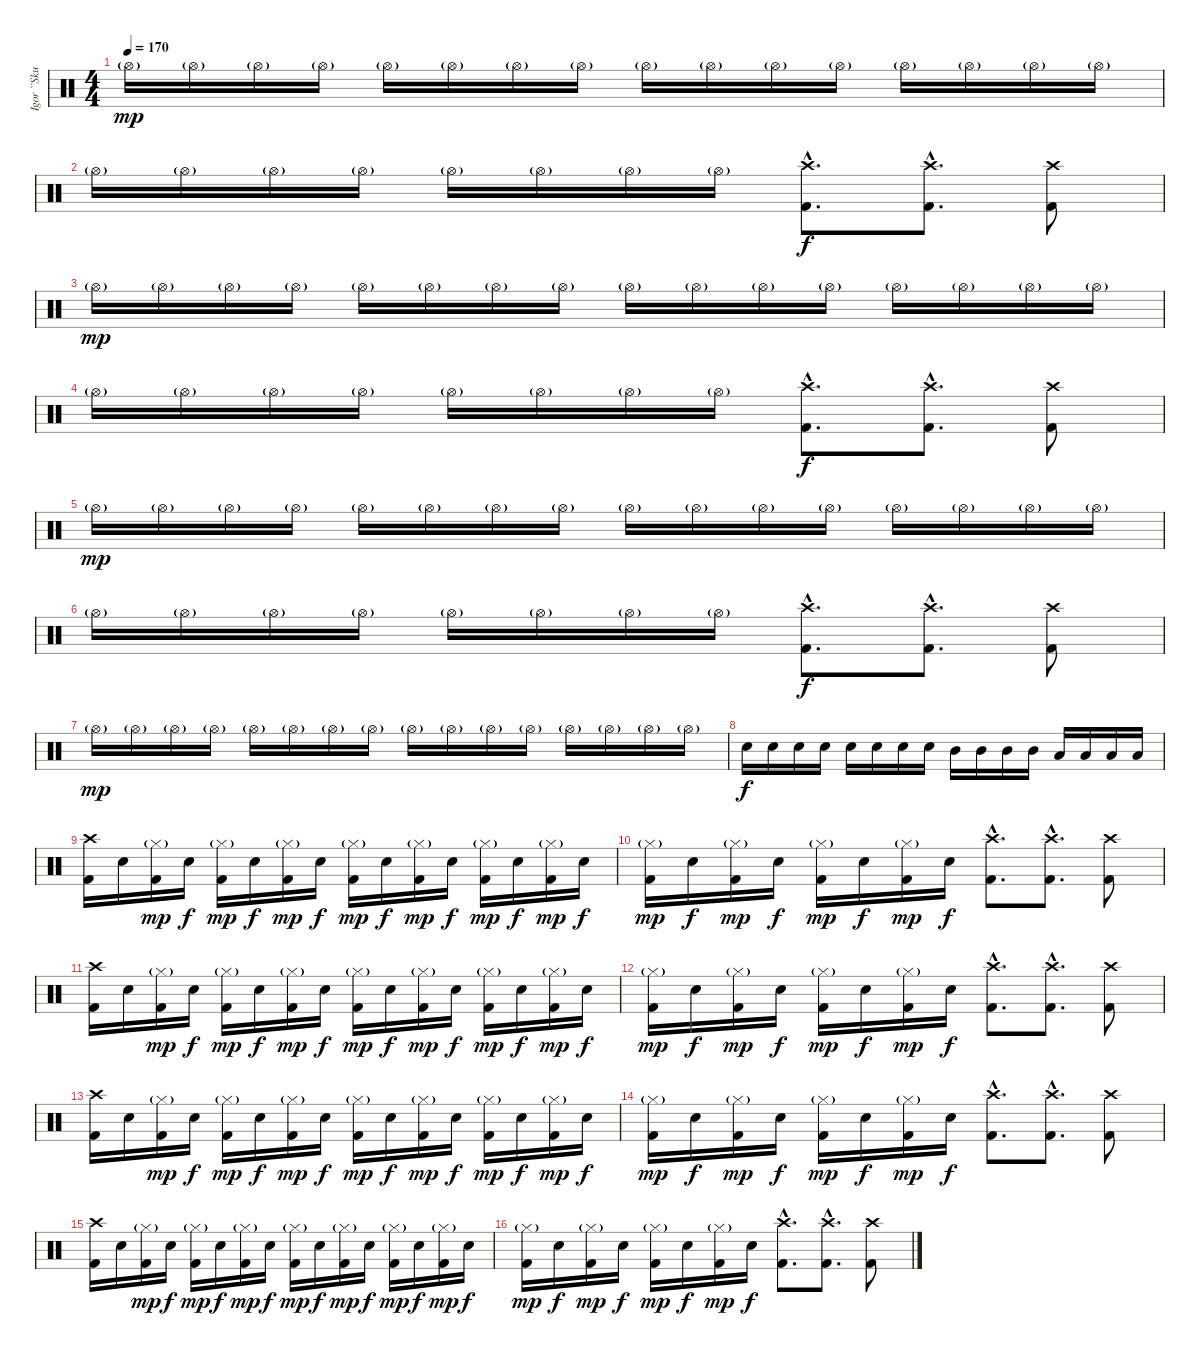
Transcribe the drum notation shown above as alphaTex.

\track ("Igor ``Skullcrusher`` Cavalera" "Igor ``Sku") {instrument percussion}
\staff {score}
\articulation defaults
\ts (4 4)
\tempo 170
\clef neutral
\ks c "Hi-Hat (open)"{g}.16{dy mp} "Hi-Hat (open)"{g}.16 "Hi-Hat (open)"{g}.16 "Hi-Hat (open)"{g}.16 "Hi-Hat (open)"{g}.16 "Hi-Hat (open)"{g}.16 "Hi-Hat (open)"{g}.16 "Hi-Hat (open)"{g}.16 "Hi-Hat (open)"{g}.16 "Hi-Hat (open)"{g}.16 "Hi-Hat (open)"{g}.16 "Hi-Hat (open)"{g}.16 "Hi-Hat (open)"{g}.16 "Hi-Hat (open)"{g}.16 "Hi-Hat (open)"{g}.16 "Hi-Hat (open)"{g}.16
|
"Hi-Hat (open)"{g}.16 "Hi-Hat (open)"{g}.16 "Hi-Hat (open)"{g}.16 "Hi-Hat (open)"{g}.16 "Hi-Hat (open)"{g}.16 "Hi-Hat (open)"{g}.16 "Hi-Hat (open)"{g}.16 "Hi-Hat (open)"{g}.16 ("Crash high (hit)"{hac} "Kick (hit) 2"{hac}).8{d dy f} ("Crash high (hit)"{hac} "Kick (hit) 2"{hac}).8{d} ("Crash high (hit)" "Kick (hit) 2").8 |
"Hi-Hat (open)"{g}.16{dy mp} "Hi-Hat (open)"{g}.16 "Hi-Hat (open)"{g}.16 "Hi-Hat (open)"{g}.16 "Hi-Hat (open)"{g}.16 "Hi-Hat (open)"{g}.16 "Hi-Hat (open)"{g}.16 "Hi-Hat (open)"{g}.16 "Hi-Hat (open)"{g}.16 "Hi-Hat (open)"{g}.16 "Hi-Hat (open)"{g}.16 "Hi-Hat (open)"{g}.16 "Hi-Hat (open)"{g}.16 "Hi-Hat (open)"{g}.16 "Hi-Hat (open)"{g}.16 "Hi-Hat (open)"{g}.16 |
"Hi-Hat (open)"{g}.16 "Hi-Hat (open)"{g}.16 "Hi-Hat (open)"{g}.16 "Hi-Hat (open)"{g}.16 "Hi-Hat (open)"{g}.16 "Hi-Hat (open)"{g}.16 "Hi-Hat (open)"{g}.16 "Hi-Hat (open)"{g}.16 ("Crash high (hit)"{hac} "Kick (hit) 2"{hac}).8{d dy f} ("Crash high (hit)"{hac} "Kick (hit) 2"{hac}).8{d} ("Crash high (hit)" "Kick (hit) 2").8 |
"Hi-Hat (open)"{g}.16{dy mp} "Hi-Hat (open)"{g}.16 "Hi-Hat (open)"{g}.16 "Hi-Hat (open)"{g}.16 "Hi-Hat (open)"{g}.16 "Hi-Hat (open)"{g}.16 "Hi-Hat (open)"{g}.16 "Hi-Hat (open)"{g}.16 "Hi-Hat (open)"{g}.16 "Hi-Hat (open)"{g}.16 "Hi-Hat (open)"{g}.16 "Hi-Hat (open)"{g}.16 "Hi-Hat (open)"{g}.16 "Hi-Hat (open)"{g}.16 "Hi-Hat (open)"{g}.16 "Hi-Hat (open)"{g}.16 |
"Hi-Hat (open)"{g}.16 "Hi-Hat (open)"{g}.16 "Hi-Hat (open)"{g}.16 "Hi-Hat (open)"{g}.16 "Hi-Hat (open)"{g}.16 "Hi-Hat (open)"{g}.16 "Hi-Hat (open)"{g}.16 "Hi-Hat (open)"{g}.16 ("Crash high (hit)"{hac} "Kick (hit) 2"{hac}).8{d dy f} ("Crash high (hit)"{hac} "Kick (hit) 2"{hac}).8{d} ("Crash high (hit)" "Kick (hit) 2").8 |
"Hi-Hat (open)"{g}.16{dy mp} "Hi-Hat (open)"{g}.16 "Hi-Hat (open)"{g}.16 "Hi-Hat (open)"{g}.16 "Hi-Hat (open)"{g}.16 "Hi-Hat (open)"{g}.16 "Hi-Hat (open)"{g}.16 "Hi-Hat (open)"{g}.16 "Hi-Hat (open)"{g}.16 "Hi-Hat (open)"{g}.16 "Hi-Hat (open)"{g}.16 "Hi-Hat (open)"{g}.16 "Hi-Hat (open)"{g}.16 "Hi-Hat (open)"{g}.16 "Hi-Hat (open)"{g}.16 "Hi-Hat (open)"{g}.16 |
"Electric Snare (hit)".16{dy f} "Electric Snare (hit)".16 "Electric Snare (hit)".16 "Electric Snare (hit)".16 "Electric Snare (hit)".16 "Electric Snare (hit)".16 "Electric Snare (hit)".16 "Electric Snare (hit)".16 "Mid Tom (hit)".16 "Mid Tom (hit)".16 "Mid Tom (hit)".16 "Mid Tom (hit)".16 "Low Tom (hit)".16 "Low Tom (hit)".16 "Low Tom (hit)".16 "Low Tom (hit)".16 |
("Crash high (hit)" "Kick (hit) 2").16 "Electric Snare (hit)".16 ("Hi-Hat (closed)"{g} "Kick (hit) 2").16{dy mp} "Electric Snare (hit)".16{dy f} ("Hi-Hat (closed)"{g} "Kick (hit) 2").16{dy mp} "Electric Snare (hit)".16{dy f} ("Hi-Hat (closed)"{g} "Kick (hit) 2").16{dy mp} "Electric Snare (hit)".16{dy f} ("Hi-Hat (closed)"{g} "Kick (hit) 2").16{dy mp} "Electric Snare (hit)".16{dy f} ("Hi-Hat (closed)"{g} "Kick (hit) 2").16{dy mp} "Electric Snare (hit)".16{dy f} ("Hi-Hat (closed)"{g} "Kick (hit) 2").16{dy mp} "Electric Snare (hit)".16{dy f} ("Hi-Hat (closed)"{g} "Kick (hit) 2").16{dy mp} "Electric Snare (hit)".16{dy f} |
("Hi-Hat (closed)"{g} "Kick (hit) 2").16{dy mp} "Electric Snare (hit)".16{dy f} ("Hi-Hat (closed)"{g} "Kick (hit) 2").16{dy mp} "Electric Snare (hit)".16{dy f} ("Hi-Hat (closed)"{g} "Kick (hit) 2").16{dy mp} "Electric Snare (hit)".16{dy f} ("Hi-Hat (closed)"{g} "Kick (hit) 2").16{dy mp} "Electric Snare (hit)".16{dy f} ("Crash high (hit)"{hac} "Kick (hit) 2"{hac}).8{d} ("Crash high (hit)"{hac} "Kick (hit) 2"{hac}).8{d} ("Crash high (hit)" "Kick (hit) 2").8 |
("Crash high (hit)" "Kick (hit) 2").16 "Electric Snare (hit)".16 ("Hi-Hat (closed)"{g} "Kick (hit) 2").16{dy mp} "Electric Snare (hit)".16{dy f} ("Hi-Hat (closed)"{g} "Kick (hit) 2").16{dy mp} "Electric Snare (hit)".16{dy f} ("Hi-Hat (closed)"{g} "Kick (hit) 2").16{dy mp} "Electric Snare (hit)".16{dy f} ("Hi-Hat (closed)"{g} "Kick (hit) 2").16{dy mp} "Electric Snare (hit)".16{dy f} ("Hi-Hat (closed)"{g} "Kick (hit) 2").16{dy mp} "Electric Snare (hit)".16{dy f} ("Hi-Hat (closed)"{g} "Kick (hit) 2").16{dy mp} "Electric Snare (hit)".16{dy f} ("Hi-Hat (closed)"{g} "Kick (hit) 2").16{dy mp} "Electric Snare (hit)".16{dy f} |
("Hi-Hat (closed)"{g} "Kick (hit) 2").16{dy mp} "Electric Snare (hit)".16{dy f} ("Hi-Hat (closed)"{g} "Kick (hit) 2").16{dy mp} "Electric Snare (hit)".16{dy f} ("Hi-Hat (closed)"{g} "Kick (hit) 2").16{dy mp} "Electric Snare (hit)".16{dy f} ("Hi-Hat (closed)"{g} "Kick (hit) 2").16{dy mp} "Electric Snare (hit)".16{dy f} ("Crash high (hit)"{hac} "Kick (hit) 2"{hac}).8{d} ("Crash high (hit)"{hac} "Kick (hit) 2"{hac}).8{d} ("Crash high (hit)" "Kick (hit) 2").8 |
("Crash high (hit)" "Kick (hit) 2").16 "Electric Snare (hit)".16 ("Hi-Hat (closed)"{g} "Kick (hit) 2").16{dy mp} "Electric Snare (hit)".16{dy f} ("Hi-Hat (closed)"{g} "Kick (hit) 2").16{dy mp} "Electric Snare (hit)".16{dy f} ("Hi-Hat (closed)"{g} "Kick (hit) 2").16{dy mp} "Electric Snare (hit)".16{dy f} ("Hi-Hat (closed)"{g} "Kick (hit) 2").16{dy mp} "Electric Snare (hit)".16{dy f} ("Hi-Hat (closed)"{g} "Kick (hit) 2").16{dy mp} "Electric Snare (hit)".16{dy f} ("Hi-Hat (closed)"{g} "Kick (hit) 2").16{dy mp} "Electric Snare (hit)".16{dy f} ("Hi-Hat (closed)"{g} "Kick (hit) 2").16{dy mp} "Electric Snare (hit)".16{dy f} |
("Hi-Hat (closed)"{g} "Kick (hit) 2").16{dy mp} "Electric Snare (hit)".16{dy f} ("Hi-Hat (closed)"{g} "Kick (hit) 2").16{dy mp} "Electric Snare (hit)".16{dy f} ("Hi-Hat (closed)"{g} "Kick (hit) 2").16{dy mp} "Electric Snare (hit)".16{dy f} ("Hi-Hat (closed)"{g} "Kick (hit) 2").16{dy mp} "Electric Snare (hit)".16{dy f} ("Crash high (hit)"{hac} "Kick (hit) 2"{hac}).8{d} ("Crash high (hit)"{hac} "Kick (hit) 2"{hac}).8{d} ("Crash high (hit)" "Kick (hit) 2").8 |
("Crash high (hit)" "Kick (hit) 2").16 "Electric Snare (hit)".16 ("Hi-Hat (closed)"{g} "Kick (hit) 2").16{dy mp} "Electric Snare (hit)".16{dy f} ("Hi-Hat (closed)"{g} "Kick (hit) 2").16{dy mp} "Electric Snare (hit)".16{dy f} ("Hi-Hat (closed)"{g} "Kick (hit) 2").16{dy mp} "Electric Snare (hit)".16{dy f} ("Hi-Hat (closed)"{g} "Kick (hit) 2").16{dy mp} "Electric Snare (hit)".16{dy f} ("Hi-Hat (closed)"{g} "Kick (hit) 2").16{dy mp} "Electric Snare (hit)".16{dy f} ("Hi-Hat (closed)"{g} "Kick (hit) 2").16{dy mp} "Electric Snare (hit)".16{dy f} ("Hi-Hat (closed)"{g} "Kick (hit) 2").16{dy mp} "Electric Snare (hit)".16{dy f} |
("Hi-Hat (closed)"{g} "Kick (hit) 2").16{dy mp} "Electric Snare (hit)".16{dy f} ("Hi-Hat (closed)"{g} "Kick (hit) 2").16{dy mp} "Electric Snare (hit)".16{dy f} ("Hi-Hat (closed)"{g} "Kick (hit) 2").16{dy mp} "Electric Snare (hit)".16{dy f} ("Hi-Hat (closed)"{g} "Kick (hit) 2").16{dy mp} "Electric Snare (hit)".16{dy f} ("Crash high (hit)"{hac} "Kick (hit) 2"{hac}).8{d} ("Crash high (hit)"{hac} "Kick (hit) 2"{hac}).8{d} ("Crash high (hit)" "Kick (hit) 2").8
